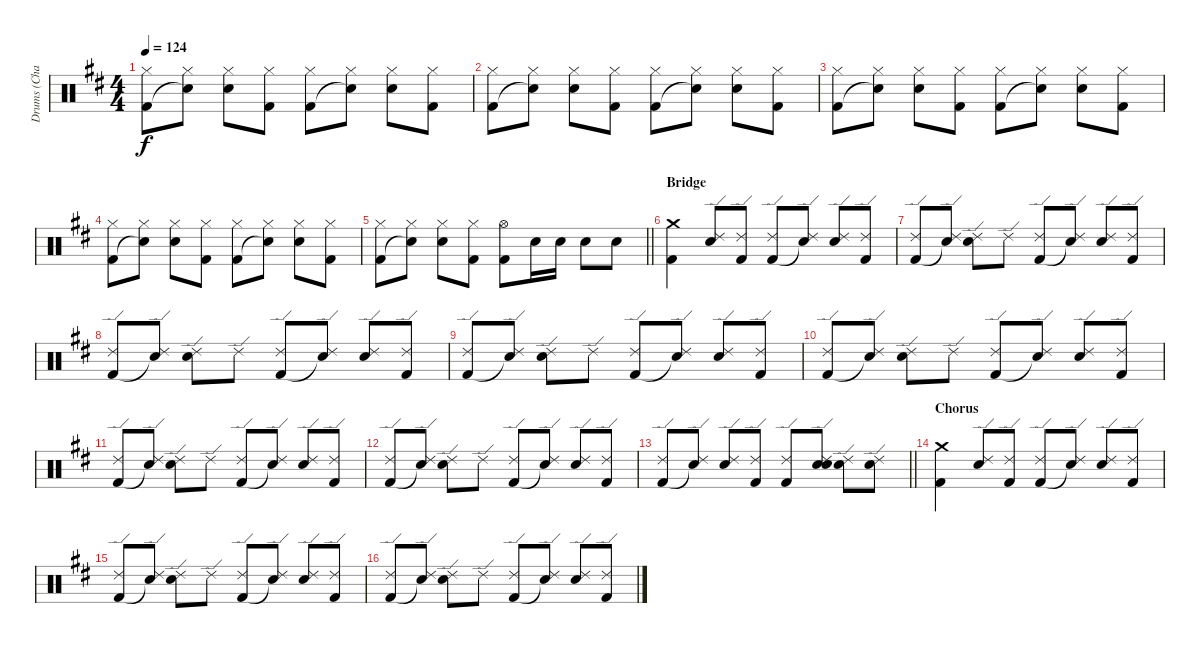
\track ("Drums (Charlie)" "Drums (Cha") {instrument percussion}
\staff {score}
\articulation defaults
\ts (4 4)
\tempo 124
\clef neutral
\ks d
("Hi-Hat (closed)" "Kick (hit) 2").8{dy f} ("Hi-Hat (closed)" "Snare (hit)"{t}).8 ("Hi-Hat (closed)" "Snare (hit) 2").8 ("Hi-Hat (closed)" "Kick (hit) 2").8 ("Hi-Hat (closed)" "Kick (hit) 2").8 ("Hi-Hat (closed)" "Snare (hit)"{t}).8 ("Hi-Hat (closed)" "Snare (hit) 2").8 ("Hi-Hat (closed)" "Kick (hit) 2").8 |
("Hi-Hat (closed)" "Kick (hit) 2").8 ("Hi-Hat (closed)" "Snare (hit)"{t}).8 ("Hi-Hat (closed)" "Snare (hit) 2").8 ("Hi-Hat (closed)" "Kick (hit) 2").8 ("Hi-Hat (closed)" "Kick (hit) 2").8 ("Hi-Hat (closed)" "Snare (hit)"{t}).8 ("Hi-Hat (closed)" "Snare (hit) 2").8 ("Hi-Hat (closed)" "Kick (hit) 2").8 |
("Hi-Hat (closed)" "Kick (hit) 2").8 ("Hi-Hat (closed)" "Snare (hit)"{t}).8 ("Hi-Hat (closed)" "Snare (hit) 2").8 ("Hi-Hat (closed)" "Kick (hit) 2").8 ("Hi-Hat (closed)" "Kick (hit) 2").8 ("Hi-Hat (closed)" "Snare (hit)"{t}).8 ("Hi-Hat (closed)" "Snare (hit) 2").8 ("Hi-Hat (closed)" "Kick (hit) 2").8 |
("Hi-Hat (closed)" "Kick (hit) 2").8 ("Hi-Hat (closed)" "Snare (hit)"{t}).8 ("Hi-Hat (closed)" "Snare (hit) 2").8 ("Hi-Hat (closed)" "Kick (hit) 2").8 ("Hi-Hat (closed)" "Kick (hit) 2").8 ("Hi-Hat (closed)" "Snare (hit)"{t}).8 ("Hi-Hat (closed)" "Snare (hit) 2").8 ("Hi-Hat (closed)" "Kick (hit) 2").8 |
\barLineRight lightlight
("Hi-Hat (closed)" "Kick (hit) 2").8 ("Hi-Hat (closed)" "Snare (hit)"{t}).8 ("Hi-Hat (closed)" "Snare (hit) 2").8 ("Hi-Hat (closed)" "Kick (hit) 2").8 ("Hi-Hat (open)" "Kick (hit) 2").8 "Snare (hit) 2".16 "Snare (hit) 2".16 "Snare (hit) 2".8 "Snare (hit) 2".8 |
\section ("" "Bridge")
("Crash medium (hit)" "Kick (hit) 2").4 ("Ride (edge) 2" "Snare (hit) 2").8 ("Ride (edge) 2" "Kick (hit) 2").8 ("Ride (edge) 2" "Kick (hit) 2").8 ("Ride (edge) 2" "Snare (hit)"{t}).8 ("Ride (edge) 2" "Snare (hit) 2").8 ("Ride (edge) 2" "Kick (hit) 2").8 |
("Ride (edge) 2" "Kick (hit) 2").8 ("Ride (edge) 2" "Snare (hit)"{t}).8 ("Ride (edge) 2" "Snare (hit) 2").8 "Ride (edge) 2".8 ("Ride (edge) 2" "Kick (hit) 2").8 ("Ride (edge) 2" "Snare (hit)"{t}).8 ("Ride (edge) 2" "Snare (hit) 2").8 ("Ride (edge) 2" "Kick (hit) 2").8 |
("Ride (edge) 2" "Kick (hit) 2").8 ("Ride (edge) 2" "Snare (hit)"{t}).8 ("Ride (edge) 2" "Snare (hit) 2").8 "Ride (edge) 2".8 ("Ride (edge) 2" "Kick (hit) 2").8 ("Ride (edge) 2" "Snare (hit)"{t}).8 ("Ride (edge) 2" "Snare (hit) 2").8 ("Ride (edge) 2" "Kick (hit) 2").8 |
("Ride (edge) 2" "Kick (hit) 2").8 ("Ride (edge) 2" "Snare (hit)"{t}).8 ("Ride (edge) 2" "Snare (hit) 2").8 "Ride (edge) 2".8 ("Ride (edge) 2" "Kick (hit) 2").8 ("Ride (edge) 2" "Snare (hit)"{t}).8 ("Ride (edge) 2" "Snare (hit) 2").8 ("Ride (edge) 2" "Kick (hit) 2").8 |
("Ride (edge) 2" "Kick (hit) 2").8 ("Ride (edge) 2" "Snare (hit)"{t}).8 ("Ride (edge) 2" "Snare (hit) 2").8 "Ride (edge) 2".8 ("Ride (edge) 2" "Kick (hit) 2").8 ("Ride (edge) 2" "Snare (hit)"{t}).8 ("Ride (edge) 2" "Snare (hit) 2").8 ("Ride (edge) 2" "Kick (hit) 2").8 |
("Ride (edge) 2" "Kick (hit) 2").8 ("Ride (edge) 2" "Snare (hit)"{t}).8 ("Ride (edge) 2" "Snare (hit) 2").8 "Ride (edge) 2".8 ("Ride (edge) 2" "Kick (hit) 2").8 ("Ride (edge) 2" "Snare (hit)"{t}).8 ("Ride (edge) 2" "Snare (hit) 2").8 ("Ride (edge) 2" "Kick (hit) 2").8 |
("Ride (edge) 2" "Kick (hit) 2").8 ("Ride (edge) 2" "Snare (hit)"{t}).8 ("Ride (edge) 2" "Snare (hit) 2").8 "Ride (edge) 2".8 ("Ride (edge) 2" "Kick (hit) 2").8 ("Ride (edge) 2" "Snare (hit)"{t}).8 ("Ride (edge) 2" "Snare (hit) 2").8 ("Ride (edge) 2" "Kick (hit) 2").8 |
\barLineRight lightlight
("Ride (edge) 2" "Kick (hit) 2").8 ("Ride (edge) 2" "Snare (hit)"{t}).8 ("Ride (edge) 2" "Snare (hit) 2").8 ("Ride (edge) 2" "Kick (hit) 2").8 ("Ride (edge) 2" "Kick (hit) 2").8 ("Ride (edge) 2" "Snare (hit) 2" "Snare (hit)").8 ("Ride (edge) 2" "Snare (hit) 2").8 ("Ride (edge) 2" "Snare (hit) 2").8 |
\section ("" "Chorus")
("Crash medium (hit)" "Kick (hit) 2").4 ("Ride (edge) 2" "Snare (hit) 2").8 ("Ride (edge) 2" "Kick (hit) 2").8 ("Ride (edge) 2" "Kick (hit) 2").8 ("Ride (edge) 2" "Snare (hit)"{t}).8 ("Ride (edge) 2" "Snare (hit) 2").8 ("Ride (edge) 2" "Kick (hit) 2").8 |
("Ride (edge) 2" "Kick (hit) 2").8 ("Ride (edge) 2" "Snare (hit)"{t}).8 ("Ride (edge) 2" "Snare (hit) 2").8 "Ride (edge) 2".8 ("Ride (edge) 2" "Kick (hit) 2").8 ("Ride (edge) 2" "Snare (hit)"{t}).8 ("Ride (edge) 2" "Snare (hit) 2").8 ("Ride (edge) 2" "Kick (hit) 2").8 |
("Ride (edge) 2" "Kick (hit) 2").8 ("Ride (edge) 2" "Snare (hit)"{t}).8 ("Ride (edge) 2" "Snare (hit) 2").8 "Ride (edge) 2".8 ("Ride (edge) 2" "Kick (hit) 2").8 ("Ride (edge) 2" "Snare (hit)"{t}).8 ("Ride (edge) 2" "Snare (hit) 2").8 ("Ride (edge) 2" "Kick (hit) 2").8
